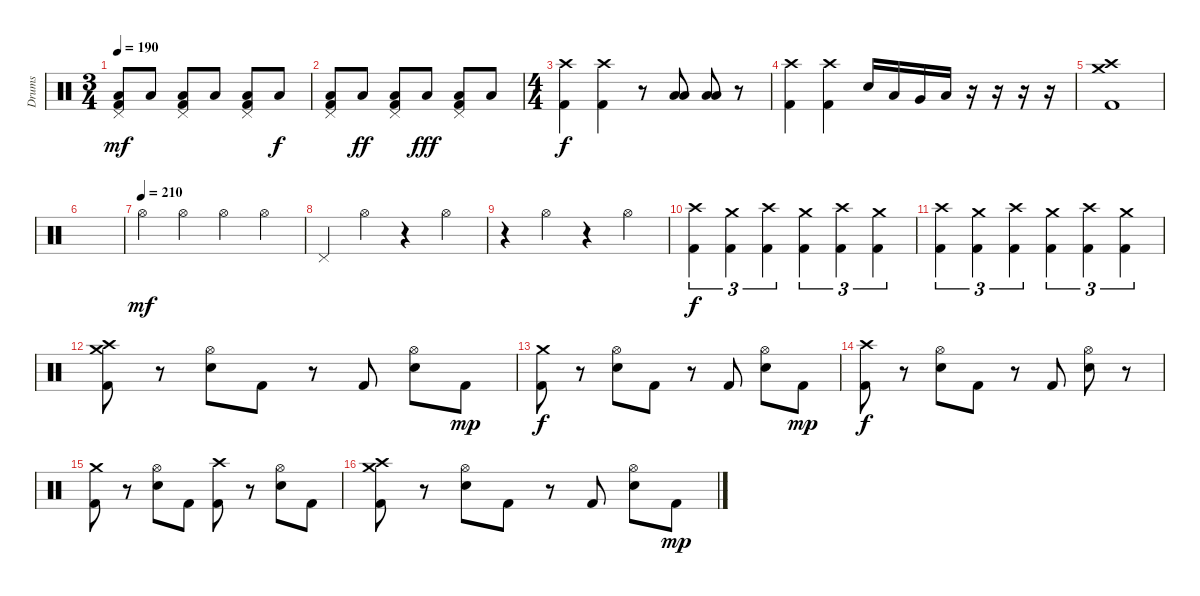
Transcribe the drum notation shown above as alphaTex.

\track ("Drums" "Drums") {instrument percussion}
\staff {score}
\articulation defaults
\ts (3 4)
\tempo 190
\clef neutral
\ks c
("Pedal Hi-Hat (hit)" "Low Floor Tom (hit)" "Kick (hit) 2").8{dy mf} "Low Floor Tom (hit)".8 ("Pedal Hi-Hat (hit)" "Low Floor Tom (hit)" "Kick (hit) 2").8 "Low Floor Tom (hit)".8 ("Pedal Hi-Hat (hit)" "Low Floor Tom (hit)" "Kick (hit) 2").8 "Low Floor Tom (hit)".8{dy f} |
("Pedal Hi-Hat (hit)" "Low Floor Tom (hit)" "Kick (hit) 2").8 "Low Floor Tom (hit)".8{dy ff} ("Pedal Hi-Hat (hit)" "Low Floor Tom (hit)" "Kick (hit) 2").8 "Low Floor Tom (hit)".8{dy fff} ("Pedal Hi-Hat (hit)" "Low Floor Tom (hit)" "Kick (hit) 2").8 "Low Floor Tom (hit)".8 |
\ts (4 4)
("Crash high (hit)" "Kick (hit) 2").4{dy f} ("Crash high (hit)" "Kick (hit) 2").4 r.8 ("Low Floor Tom (hit)" "Low Floor Tom (hit)").8 ("Low Floor Tom (hit)" "Low Floor Tom (hit)").8 r.8 |
("Crash high (hit)" "Kick (hit) 2").4 ("Crash high (hit)" "Kick (hit) 2").4 "Electric Snare (hit)".16 "Low Tom (hit)".16 "Very Low Tom (hit)".16 "Low Floor Tom (hit)".16 r.16 r.16 r.16 r.16 |
("Crash medium (hit)" "Crash high (hit)" "Kick (hit) 2").1 |
|
\tempo (210)
"Hi-Hat (open)".4{dy mf} "Hi-Hat (open)".4 "Hi-Hat (open)".4 "Hi-Hat (open)".4 |
"Pedal Hi-Hat (hit)".4 "Hi-Hat (open)".4 r.4 "Hi-Hat (open)".4 |
r.4 "Hi-Hat (open)".4 r.4 "Hi-Hat (open)".4 |
("Crash high (hit)" "Kick (hit) 2").4{tu (3 2) dy f} ("Crash medium (hit)" "Kick (hit) 2").4{tu (3 2)} ("Crash high (hit)" "Kick (hit) 2").4{tu (3 2)} ("Crash medium (hit)" "Kick (hit) 2").4{tu (3 2)} ("Crash high (hit)" "Kick (hit) 2").4{tu (3 2)} ("Crash medium (hit)" "Kick (hit) 2").4{tu (3 2)} |
("Crash high (hit)" "Kick (hit) 2").4{tu (3 2)} ("Crash medium (hit)" "Kick (hit) 2").4{tu (3 2)} ("Crash high (hit)" "Kick (hit) 2").4{tu (3 2)} ("Crash medium (hit)" "Kick (hit) 2").4{tu (3 2)} ("Crash high (hit)" "Kick (hit) 2").4{tu (3 2)} ("Crash medium (hit)" "Kick (hit) 2").4{tu (3 2)} |
("Crash high (hit)" "Crash medium (hit)" "Kick (hit) 2").8 r.8 ("Hi-Hat (open)" "Electric Snare (hit)").8 "Kick (hit) 2".8 r.8 "Kick (hit) 2".8 ("Hi-Hat (open)" "Electric Snare (hit)").8 "Kick (hit) 2".8{dy mp} |
("Crash medium (hit)" "Kick (hit) 2").8{dy f} r.8 ("Hi-Hat (open)" "Electric Snare (hit)").8 "Kick (hit) 2".8 r.8 "Kick (hit) 2".8 ("Hi-Hat (open)" "Electric Snare (hit)").8 "Kick (hit) 2".8{dy mp} |
("Crash high (hit)" "Kick (hit) 2").8{dy f} r.8 ("Hi-Hat (open)" "Electric Snare (hit)").8 "Kick (hit) 2".8 r.8 "Kick (hit) 2".8 ("Hi-Hat (open)" "Electric Snare (hit)").8 r.8 |
("Crash medium (hit)" "Kick (hit) 2").8 r.8 ("Hi-Hat (open)" "Electric Snare (hit)").8 "Kick (hit) 2".8 ("Crash high (hit)" "Kick (hit) 2").8 r.8 ("Hi-Hat (open)" "Electric Snare (hit)").8 "Kick (hit) 2".8 |
("Crash high (hit)" "Crash medium (hit)" "Kick (hit) 2").8 r.8 ("Hi-Hat (open)" "Electric Snare (hit)").8 "Kick (hit) 2".8 r.8 "Kick (hit) 2".8 ("Hi-Hat (open)" "Electric Snare (hit)").8 "Kick (hit) 2".8{dy mp}
